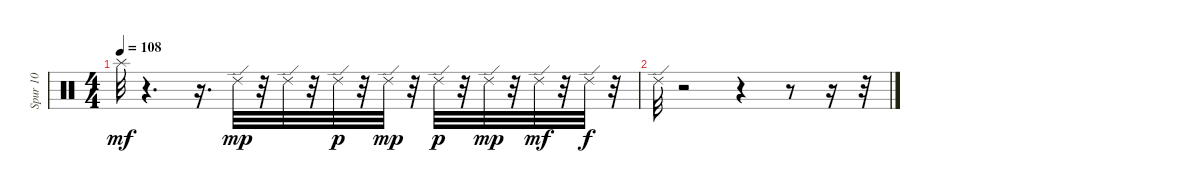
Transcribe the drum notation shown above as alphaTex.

\track ("Spur 10" "Spur 10") {instrument percussion}
\staff {score}
\articulation defaults
\ts (4 4)
\tempo 108
\clef neutral
\ks c "Splash (hit)".32{dy mf}
r.4{d} r.16{d} "Ride (edge) 2".32{dy mp} r.32 "Ride (edge) 2".32 r.32 "Ride (edge) 2".32{dy p} r.32 "Ride (edge) 2".32{dy mp} r.32 "Ride (edge) 2".32{dy p} r.32 "Ride (edge) 2".32{dy mp} r.32 "Ride (edge) 2".32{dy mf} r.32 "Ride (edge) 2".32{dy f} r.32 |
"Ride (edge) 2".32 r.2 r.4 r.8 r.16 r.32
